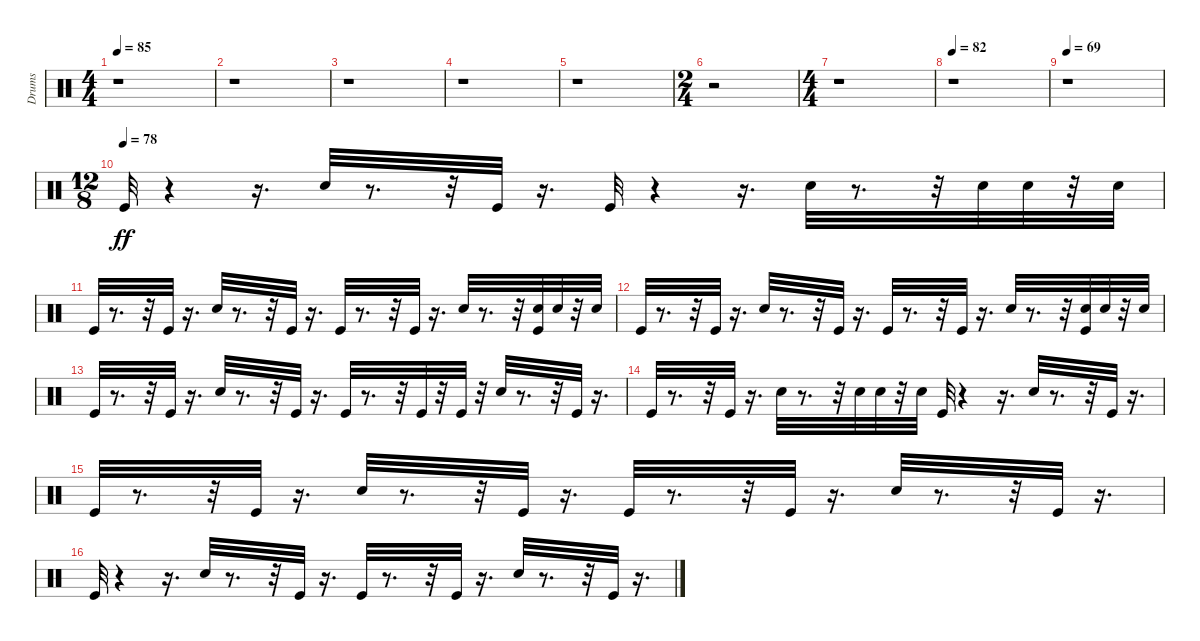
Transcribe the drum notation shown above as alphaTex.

\track ("Drums" "Drums") {instrument percussion}
\staff {score}
\articulation defaults
\ts (4 4)
\tempo 85
\clef neutral
\ks c
r.1{dy ff} |
r.1 |
r.1 |
r.1 |
r.1 |
\ts (2 4)
r.2 |
\ts (4 4)
r.1 |
\tempo 82
r.1 |
\tempo 69
r.1 |
\ts (12 8)
\tempo (78)
"Kick (hit)".32 r.4 r.16{d} "Electric Snare (hit)".32 r.8{d} r.32 "Kick (hit)".32 r.16{d} "Kick (hit)".32 r.4 r.16{d} "Electric Snare (hit)".32 r.8{d} r.32 "Electric Snare (hit)".32 "Electric Snare (hit)".32 r.32 "Electric Snare (hit)".32 |
"Kick (hit)".32 r.8{d} r.32 "Kick (hit)".32 r.16{d} "Electric Snare (hit)".32 r.8{d} r.32 "Kick (hit)".32 r.16{d} "Kick (hit)".32 r.8{d} r.32 "Kick (hit)".32 r.16{d} "Electric Snare (hit)".32 r.8{d} r.32 ("Electric Snare (hit)" "Kick (hit)").32 "Electric Snare (hit)".32 r.32 "Electric Snare (hit)".32 |
"Kick (hit)".32 r.8{d} r.32 "Kick (hit)".32 r.16{d} "Electric Snare (hit)".32 r.8{d} r.32 "Kick (hit)".32 r.16{d} "Kick (hit)".32 r.8{d} r.32 "Kick (hit)".32 r.16{d} "Electric Snare (hit)".32 r.8{d} r.32 ("Kick (hit)" "Electric Snare (hit)").32 "Electric Snare (hit)".32 r.32 "Electric Snare (hit)".32 |
"Kick (hit)".32 r.8{d} r.32 "Kick (hit)".32 r.16{d} "Electric Snare (hit)".32 r.8{d} r.32 "Kick (hit)".32 r.16{d} "Kick (hit)".32 r.8{d} r.32 "Kick (hit)".32 r.32 "Kick (hit)".32 r.32 "Electric Snare (hit)".32 r.8{d} r.32 "Kick (hit)".32 r.16{d} |
"Kick (hit)".32 r.8{d} r.32 "Kick (hit)".32 r.16{d} "Electric Snare (hit)".32 r.8{d} r.32 "Electric Snare (hit)".32 "Electric Snare (hit)".32 r.32 "Electric Snare (hit)".32 "Kick (hit)".32 r.4 r.16{d} "Electric Snare (hit)".32 r.8{d} r.32 "Kick (hit)".32 r.16{d} |
"Kick (hit)".32 r.8{d} r.32 "Kick (hit)".32 r.16{d} "Electric Snare (hit)".32 r.8{d} r.32 "Kick (hit)".32 r.16{d} "Kick (hit)".32 r.8{d} r.32 "Kick (hit)".32 r.16{d} "Electric Snare (hit)".32 r.8{d} r.32 "Kick (hit)".32 r.16{d} |
"Kick (hit)".32 r.4 r.16{d} "Electric Snare (hit)".32 r.8{d} r.32 "Kick (hit)".32 r.16{d} "Kick (hit)".32 r.8{d} r.32 "Kick (hit)".32 r.16{d} "Electric Snare (hit)".32 r.8{d} r.32 "Kick (hit)".32 r.16{d}
